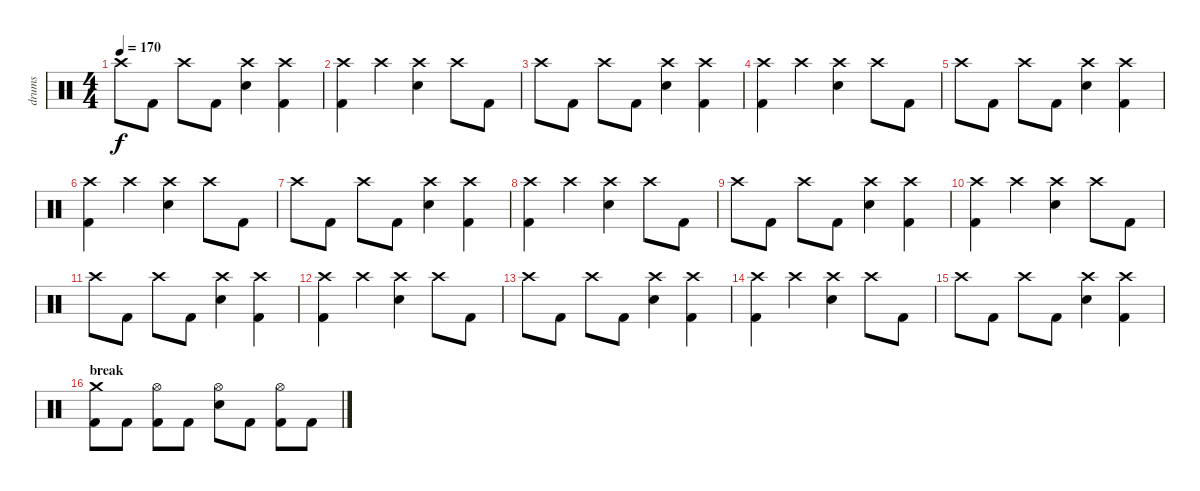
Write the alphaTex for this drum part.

\track ("drums" "drums") {instrument percussion}
\staff {score}
\articulation defaults
\ts (4 4)
\tempo 170
\clef neutral
\ks c "Crash high (hit)".8{dy f} "Kick (hit) 2".8 "Crash high (hit)".8 "Kick (hit) 2".8
("Crash high (hit)" "Electric Snare (hit)").4 ("Crash high (hit)" "Kick (hit) 2").4 |
("Crash high (hit)" "Kick (hit) 2").4 "Crash high (hit)".4 ("Crash high (hit)" "Electric Snare (hit)").4 "Crash high (hit)".8 "Kick (hit) 2".8 |
"Crash high (hit)".8 "Kick (hit) 2".8 "Crash high (hit)".8 "Kick (hit) 2".8 ("Crash high (hit)" "Electric Snare (hit)").4 ("Crash high (hit)" "Kick (hit) 2").4 |
("Crash high (hit)" "Kick (hit) 2").4 "Crash high (hit)".4 ("Crash high (hit)" "Electric Snare (hit)").4 "Crash high (hit)".8 "Kick (hit) 2".8 |
"Crash high (hit)".8 "Kick (hit) 2".8 "Crash high (hit)".8 "Kick (hit) 2".8 ("Crash high (hit)" "Electric Snare (hit)").4 ("Crash high (hit)" "Kick (hit) 2").4 |
("Crash high (hit)" "Kick (hit) 2").4 "Crash high (hit)".4 ("Crash high (hit)" "Electric Snare (hit)").4 "Crash high (hit)".8 "Kick (hit) 2".8 |
"Crash high (hit)".8 "Kick (hit) 2".8 "Crash high (hit)".8 "Kick (hit) 2".8 ("Crash high (hit)" "Electric Snare (hit)").4 ("Crash high (hit)" "Kick (hit) 2").4 |
("Crash high (hit)" "Kick (hit) 2").4 "Crash high (hit)".4 ("Crash high (hit)" "Electric Snare (hit)").4 "Crash high (hit)".8 "Kick (hit) 2".8 |
"Crash high (hit)".8 "Kick (hit) 2".8 "Crash high (hit)".8 "Kick (hit) 2".8 ("Crash high (hit)" "Electric Snare (hit)").4 ("Crash high (hit)" "Kick (hit) 2").4 |
("Crash high (hit)" "Kick (hit) 2").4 "Crash high (hit)".4 ("Crash high (hit)" "Electric Snare (hit)").4 "Crash high (hit)".8 "Kick (hit) 2".8 |
"Crash high (hit)".8 "Kick (hit) 2".8 "Crash high (hit)".8 "Kick (hit) 2".8 ("Crash high (hit)" "Electric Snare (hit)").4 ("Crash high (hit)" "Kick (hit) 2").4 |
("Crash high (hit)" "Kick (hit) 2").4 "Crash high (hit)".4 ("Crash high (hit)" "Electric Snare (hit)").4 "Crash high (hit)".8 "Kick (hit) 2".8 |
"Crash high (hit)".8 "Kick (hit) 2".8 "Crash high (hit)".8 "Kick (hit) 2".8 ("Crash high (hit)" "Electric Snare (hit)").4 ("Crash high (hit)" "Kick (hit) 2").4 |
("Crash high (hit)" "Kick (hit) 2").4 "Crash high (hit)".4 ("Crash high (hit)" "Electric Snare (hit)").4 "Crash high (hit)".8 "Kick (hit) 2".8 |
"Crash high (hit)".8 "Kick (hit) 2".8 "Crash high (hit)".8 "Kick (hit) 2".8 ("Crash high (hit)" "Electric Snare (hit)").4 ("Crash high (hit)" "Kick (hit) 2").4 |
\section ("" "break")
("Crash medium (hit)" "Kick (hit) 2").8 "Kick (hit) 2".8 ("Hi-Hat (open)" "Kick (hit) 2").8 "Kick (hit) 2".8 ("Hi-Hat (open)" "Electric Snare (hit)").8 "Kick (hit) 2".8 ("Hi-Hat (open)" "Kick (hit) 2").8 "Kick (hit) 2".8
